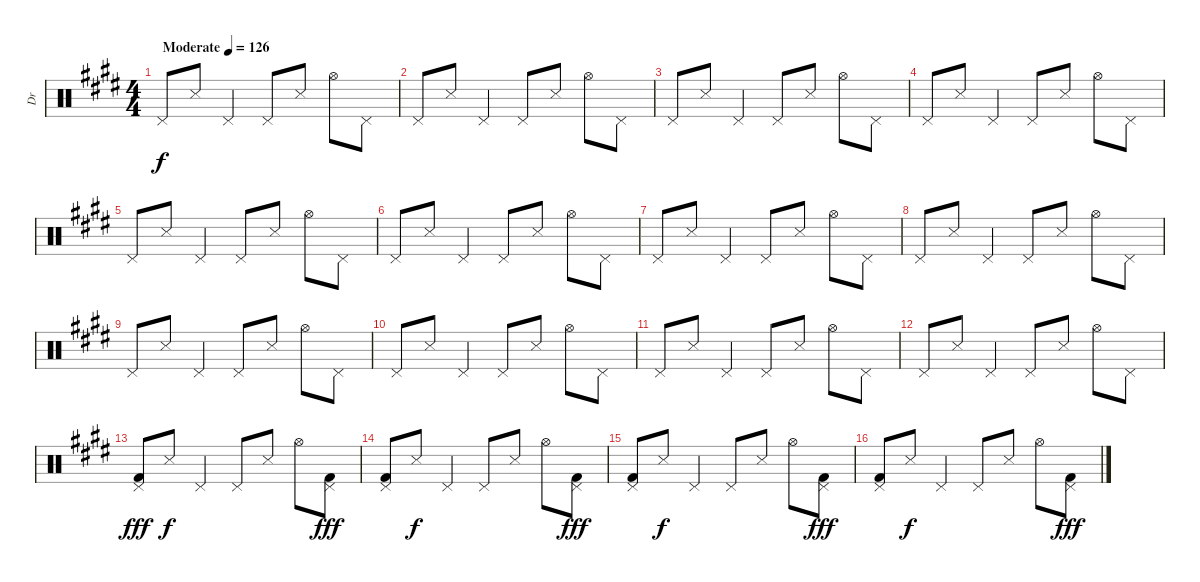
\track ("Dr" "Dr") {instrument percussion}
\staff {score}
\articulation defaults
\ts (4 4)
\tempo (126 "Moderate")
\clef neutral
\ks e "Pedal Hi-Hat (hit)".8{dy f} "Snare (side stick) 3".8 "Pedal Hi-Hat (hit)".4 "Pedal Hi-Hat (hit)".8 "Snare (side stick) 3".8 "Hi-Hat (open)".8 "Pedal Hi-Hat (hit)".8
|
"Pedal Hi-Hat (hit)".8 "Snare (side stick) 3".8 "Pedal Hi-Hat (hit)".4 "Pedal Hi-Hat (hit)".8 "Snare (side stick) 3".8 "Hi-Hat (open)".8 "Pedal Hi-Hat (hit)".8 |
"Pedal Hi-Hat (hit)".8 "Snare (side stick) 3".8 "Pedal Hi-Hat (hit)".4 "Pedal Hi-Hat (hit)".8 "Snare (side stick) 3".8 "Hi-Hat (open)".8 "Pedal Hi-Hat (hit)".8 |
"Pedal Hi-Hat (hit)".8 "Snare (side stick) 3".8 "Pedal Hi-Hat (hit)".4 "Pedal Hi-Hat (hit)".8 "Snare (side stick) 3".8 "Hi-Hat (open)".8 "Pedal Hi-Hat (hit)".8 |
"Pedal Hi-Hat (hit)".8 "Snare (side stick) 3".8 "Pedal Hi-Hat (hit)".4 "Pedal Hi-Hat (hit)".8 "Snare (side stick) 3".8 "Hi-Hat (open)".8 "Pedal Hi-Hat (hit)".8 |
"Pedal Hi-Hat (hit)".8 "Snare (side stick) 3".8 "Pedal Hi-Hat (hit)".4 "Pedal Hi-Hat (hit)".8 "Snare (side stick) 3".8 "Hi-Hat (open)".8 "Pedal Hi-Hat (hit)".8 |
"Pedal Hi-Hat (hit)".8 "Snare (side stick) 3".8 "Pedal Hi-Hat (hit)".4 "Pedal Hi-Hat (hit)".8 "Snare (side stick) 3".8 "Hi-Hat (open)".8 "Pedal Hi-Hat (hit)".8 |
"Pedal Hi-Hat (hit)".8 "Snare (side stick) 3".8 "Pedal Hi-Hat (hit)".4 "Pedal Hi-Hat (hit)".8 "Snare (side stick) 3".8 "Hi-Hat (open)".8 "Pedal Hi-Hat (hit)".8 |
"Pedal Hi-Hat (hit)".8 "Snare (side stick) 3".8 "Pedal Hi-Hat (hit)".4 "Pedal Hi-Hat (hit)".8 "Snare (side stick) 3".8 "Hi-Hat (open)".8 "Pedal Hi-Hat (hit)".8 |
"Pedal Hi-Hat (hit)".8 "Snare (side stick) 3".8 "Pedal Hi-Hat (hit)".4 "Pedal Hi-Hat (hit)".8 "Snare (side stick) 3".8 "Hi-Hat (open)".8 "Pedal Hi-Hat (hit)".8 |
"Pedal Hi-Hat (hit)".8 "Snare (side stick) 3".8 "Pedal Hi-Hat (hit)".4 "Pedal Hi-Hat (hit)".8 "Snare (side stick) 3".8 "Hi-Hat (open)".8 "Pedal Hi-Hat (hit)".8 |
"Pedal Hi-Hat (hit)".8 "Snare (side stick) 3".8 "Pedal Hi-Hat (hit)".4 "Pedal Hi-Hat (hit)".8 "Snare (side stick) 3".8 "Hi-Hat (open)".8 "Pedal Hi-Hat (hit)".8 |
("Pedal Hi-Hat (hit)" "Kick (hit) 2").8{dy fff} "Snare (side stick) 3".8{dy f} "Pedal Hi-Hat (hit)".4 "Pedal Hi-Hat (hit)".8 "Snare (side stick) 3".8 "Hi-Hat (open)".8 ("Pedal Hi-Hat (hit)" "Kick (hit) 2").8{dy fff} |
("Pedal Hi-Hat (hit)" "Kick (hit) 2").8 "Snare (side stick) 3".8{dy f} "Pedal Hi-Hat (hit)".4 "Pedal Hi-Hat (hit)".8 "Snare (side stick) 3".8 "Hi-Hat (open)".8 ("Pedal Hi-Hat (hit)" "Kick (hit) 2").8{dy fff} |
("Pedal Hi-Hat (hit)" "Kick (hit) 2").8 "Snare (side stick) 3".8{dy f} "Pedal Hi-Hat (hit)".4 "Pedal Hi-Hat (hit)".8 "Snare (side stick) 3".8 "Hi-Hat (open)".8 ("Pedal Hi-Hat (hit)" "Kick (hit) 2").8{dy fff} |
("Pedal Hi-Hat (hit)" "Kick (hit) 2").8 "Snare (side stick) 3".8{dy f} "Pedal Hi-Hat (hit)".4 "Pedal Hi-Hat (hit)".8 "Snare (side stick) 3".8 "Hi-Hat (open)".8 ("Pedal Hi-Hat (hit)" "Kick (hit) 2").8{dy fff}
